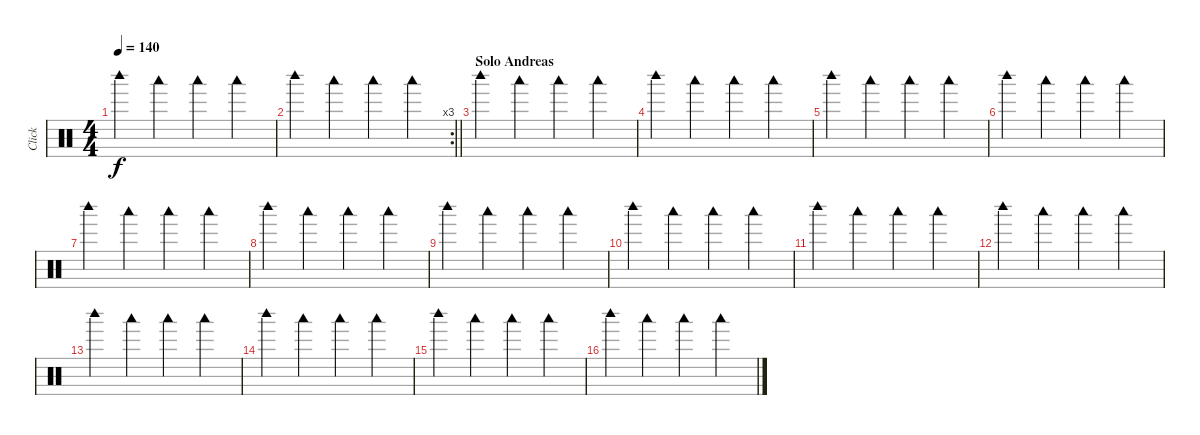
\track ("Click" "Click") {mute instrument percussion}
\staff {score}
\articulation defaults
\ts (4 4)
\tempo 140
\clef neutral
\ks c "Woodblock high (hit)".4{dy f} "Woodblock low (hit)".4 "Woodblock low (hit)".4 "Woodblock low (hit)".4
|
\rc 3
\barLineRight lightlight "Woodblock high (hit)".4 "Woodblock low (hit)".4 "Woodblock low (hit)".4 "Woodblock low (hit)".4
|
\section ("" "Solo Andreas")
"Woodblock high (hit)".4 "Woodblock low (hit)".4 "Woodblock low (hit)".4 "Woodblock low (hit)".4 |
"Woodblock high (hit)".4 "Woodblock low (hit)".4 "Woodblock low (hit)".4 "Woodblock low (hit)".4 |
"Woodblock high (hit)".4 "Woodblock low (hit)".4 "Woodblock low (hit)".4 "Woodblock low (hit)".4 |
"Woodblock high (hit)".4 "Woodblock low (hit)".4 "Woodblock low (hit)".4 "Woodblock low (hit)".4 |
"Woodblock high (hit)".4 "Woodblock low (hit)".4 "Woodblock low (hit)".4 "Woodblock low (hit)".4 |
"Woodblock high (hit)".4 "Woodblock low (hit)".4 "Woodblock low (hit)".4 "Woodblock low (hit)".4 |
"Woodblock high (hit)".4 "Woodblock low (hit)".4 "Woodblock low (hit)".4 "Woodblock low (hit)".4 |
"Woodblock high (hit)".4 "Woodblock low (hit)".4 "Woodblock low (hit)".4 "Woodblock low (hit)".4 |
"Woodblock high (hit)".4 "Woodblock low (hit)".4 "Woodblock low (hit)".4 "Woodblock low (hit)".4 |
"Woodblock high (hit)".4 "Woodblock low (hit)".4 "Woodblock low (hit)".4 "Woodblock low (hit)".4 |
"Woodblock high (hit)".4 "Woodblock low (hit)".4 "Woodblock low (hit)".4 "Woodblock low (hit)".4 |
"Woodblock high (hit)".4 "Woodblock low (hit)".4 "Woodblock low (hit)".4 "Woodblock low (hit)".4 |
"Woodblock high (hit)".4 "Woodblock low (hit)".4 "Woodblock low (hit)".4 "Woodblock low (hit)".4 |
"Woodblock high (hit)".4 "Woodblock low (hit)".4 "Woodblock low (hit)".4 "Woodblock low (hit)".4
